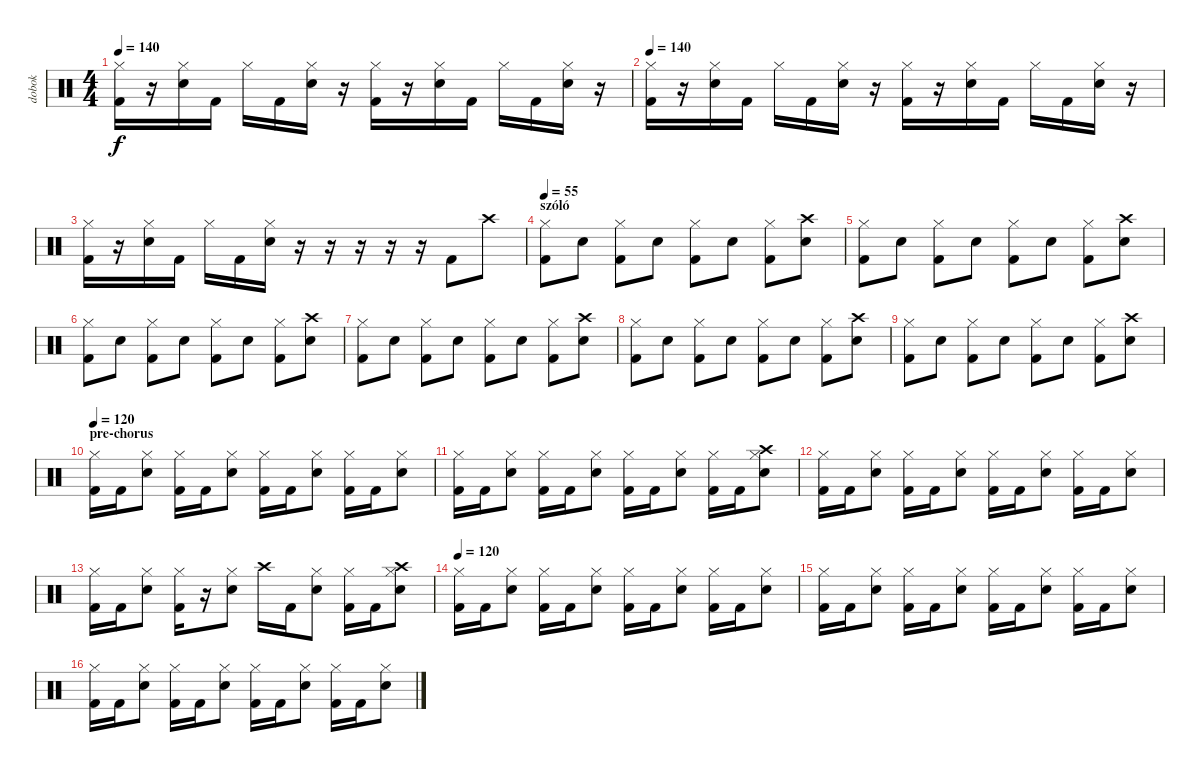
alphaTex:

\track ("dobok" "dobok") {instrument percussion}
\staff {score}
\articulation defaults
\ts (4 4)
\tempo 140
\clef neutral
\ks c
("Hi-Hat (closed)" "Kick (hit) 2").16{dy f} r.16 ("Hi-Hat (closed)" "Snare (hit) 2").16 "Kick (hit) 2".16 "Hi-Hat (closed)".16 "Kick (hit) 2".16 ("Hi-Hat (closed)" "Snare (hit) 2").16 r.16 ("Hi-Hat (closed)" "Kick (hit) 2").16 r.16 ("Hi-Hat (closed)" "Snare (hit) 2").16 "Kick (hit) 2".16 "Hi-Hat (closed)".16 "Kick (hit) 2".16 ("Hi-Hat (closed)" "Snare (hit) 2").16 r.16 |
\tempo 140
("Hi-Hat (closed)" "Kick (hit) 2").16 r.16 ("Hi-Hat (closed)" "Snare (hit) 2").16 "Kick (hit) 2".16 "Hi-Hat (closed)".16 "Kick (hit) 2".16 ("Hi-Hat (closed)" "Snare (hit) 2").16 r.16 ("Hi-Hat (closed)" "Kick (hit) 2").16 r.16 ("Hi-Hat (closed)" "Snare (hit) 2").16 "Kick (hit) 2".16 "Hi-Hat (closed)".16 "Kick (hit) 2".16 ("Hi-Hat (closed)" "Snare (hit) 2").16 r.16 |
("Hi-Hat (closed)" "Kick (hit) 2").16 r.16 ("Hi-Hat (closed)" "Snare (hit) 2").16 "Kick (hit) 2".16 "Hi-Hat (closed)".16 "Kick (hit) 2".16 ("Hi-Hat (closed)" "Snare (hit) 2").16 r.16 r.16 r.16 r.16 r.16 "Kick (hit) 2".8 "Crash high (hit)".8 |
\section ("" "szóló")
\tempo 55
("Hi-Hat (closed)" "Kick (hit) 2").8 "Snare (hit) 2".8 ("Hi-Hat (closed)" "Kick (hit) 2").8 "Snare (hit) 2".8 ("Hi-Hat (closed)" "Kick (hit) 2").8 "Snare (hit) 2".8 ("Hi-Hat (closed)" "Kick (hit) 2").8 ("Snare (hit) 2" "Crash high (hit)").8 |
("Hi-Hat (closed)" "Kick (hit) 2").8 "Snare (hit) 2".8 ("Hi-Hat (closed)" "Kick (hit) 2").8 "Snare (hit) 2".8 ("Hi-Hat (closed)" "Kick (hit) 2").8 "Snare (hit) 2".8 ("Hi-Hat (closed)" "Kick (hit) 2").8 ("Snare (hit) 2" "Crash high (hit)").8 |
("Hi-Hat (closed)" "Kick (hit) 2").8 "Snare (hit) 2".8 ("Hi-Hat (closed)" "Kick (hit) 2").8 "Snare (hit) 2".8 ("Hi-Hat (closed)" "Kick (hit) 2").8 "Snare (hit) 2".8 ("Hi-Hat (closed)" "Kick (hit) 2").8 ("Snare (hit) 2" "Crash high (hit)").8 |
("Hi-Hat (closed)" "Kick (hit) 2").8 "Snare (hit) 2".8 ("Hi-Hat (closed)" "Kick (hit) 2").8 "Snare (hit) 2".8 ("Hi-Hat (closed)" "Kick (hit) 2").8 "Snare (hit) 2".8 ("Hi-Hat (closed)" "Kick (hit) 2").8 ("Snare (hit) 2" "Crash high (hit)").8 |
("Hi-Hat (closed)" "Kick (hit) 2").8 "Snare (hit) 2".8 ("Hi-Hat (closed)" "Kick (hit) 2").8 "Snare (hit) 2".8 ("Hi-Hat (closed)" "Kick (hit) 2").8 "Snare (hit) 2".8 ("Hi-Hat (closed)" "Kick (hit) 2").8 ("Snare (hit) 2" "Crash high (hit)").8 |
("Hi-Hat (closed)" "Kick (hit) 2").8 "Snare (hit) 2".8 ("Hi-Hat (closed)" "Kick (hit) 2").8 "Snare (hit) 2".8 ("Hi-Hat (closed)" "Kick (hit) 2").8 "Snare (hit) 2".8 ("Hi-Hat (closed)" "Kick (hit) 2").8 ("Snare (hit) 2" "Crash high (hit)").8 |
\section ("" "pre-chorus")
\tempo 120
("Hi-Hat (closed)" "Kick (hit) 2").16 "Kick (hit) 2".16 ("Hi-Hat (closed)" "Snare (hit) 2").8 ("Hi-Hat (closed)" "Kick (hit) 2").16 "Kick (hit) 2".16 ("Hi-Hat (closed)" "Snare (hit) 2").8 ("Hi-Hat (closed)" "Kick (hit) 2").16 "Kick (hit) 2".16 ("Hi-Hat (closed)" "Snare (hit) 2").8 ("Hi-Hat (closed)" "Kick (hit) 2").16 "Kick (hit) 2".16 ("Hi-Hat (closed)" "Snare (hit) 2").8 |
("Hi-Hat (closed)" "Kick (hit) 2").16 "Kick (hit) 2".16 ("Hi-Hat (closed)" "Snare (hit) 2").8 ("Hi-Hat (closed)" "Kick (hit) 2").16 "Kick (hit) 2".16 ("Hi-Hat (closed)" "Snare (hit) 2").8 ("Hi-Hat (closed)" "Kick (hit) 2").16 "Kick (hit) 2".16 ("Hi-Hat (closed)" "Snare (hit) 2").8 ("Hi-Hat (closed)" "Kick (hit) 2").16 "Kick (hit) 2".16 ("Hi-Hat (closed)" "Snare (hit) 2" "Crash high (hit)").8 |
("Hi-Hat (closed)" "Kick (hit) 2").16 "Kick (hit) 2".16 ("Hi-Hat (closed)" "Snare (hit) 2").8 ("Hi-Hat (closed)" "Kick (hit) 2").16 "Kick (hit) 2".16 ("Hi-Hat (closed)" "Snare (hit) 2").8 ("Hi-Hat (closed)" "Kick (hit) 2").16 "Kick (hit) 2".16 ("Hi-Hat (closed)" "Snare (hit) 2").8 ("Hi-Hat (closed)" "Kick (hit) 2").16 "Kick (hit) 2".16 ("Hi-Hat (closed)" "Snare (hit) 2").8 |
("Hi-Hat (closed)" "Kick (hit) 2").16 "Kick (hit) 2".16 ("Hi-Hat (closed)" "Snare (hit) 2").8 ("Hi-Hat (closed)" "Kick (hit) 2").16 r.16 ("Hi-Hat (closed)" "Snare (hit) 2").8 "Crash high (hit)".16 "Kick (hit) 2".16 ("Hi-Hat (closed)" "Snare (hit) 2").8 ("Hi-Hat (closed)" "Kick (hit) 2").16 "Kick (hit) 2".16 ("Hi-Hat (closed)" "Snare (hit) 2" "Crash high (hit)").8 |
\tempo 120
("Hi-Hat (closed)" "Kick (hit) 2").16 "Kick (hit) 2".16 ("Hi-Hat (closed)" "Snare (hit) 2").8 ("Hi-Hat (closed)" "Kick (hit) 2").16 "Kick (hit) 2".16 ("Hi-Hat (closed)" "Snare (hit) 2").8 ("Hi-Hat (closed)" "Kick (hit) 2").16 "Kick (hit) 2".16 ("Hi-Hat (closed)" "Snare (hit) 2").8 ("Hi-Hat (closed)" "Kick (hit) 2").16 "Kick (hit) 2".16 ("Hi-Hat (closed)" "Snare (hit) 2").8 |
("Hi-Hat (closed)" "Kick (hit) 2").16 "Kick (hit) 2".16 ("Hi-Hat (closed)" "Snare (hit) 2").8 ("Hi-Hat (closed)" "Kick (hit) 2").16 "Kick (hit) 2".16 ("Hi-Hat (closed)" "Snare (hit) 2").8 ("Hi-Hat (closed)" "Kick (hit) 2").16 "Kick (hit) 2".16 ("Hi-Hat (closed)" "Snare (hit) 2").8 ("Hi-Hat (closed)" "Kick (hit) 2").16 "Kick (hit) 2".16 ("Hi-Hat (closed)" "Snare (hit) 2").8 |
("Hi-Hat (closed)" "Kick (hit) 2").16 "Kick (hit) 2".16 ("Hi-Hat (closed)" "Snare (hit) 2").8 ("Hi-Hat (closed)" "Kick (hit) 2").16 "Kick (hit) 2".16 ("Hi-Hat (closed)" "Snare (hit) 2").8 ("Hi-Hat (closed)" "Kick (hit) 2").16 "Kick (hit) 2".16 ("Hi-Hat (closed)" "Snare (hit) 2").8 ("Hi-Hat (closed)" "Kick (hit) 2").16 "Kick (hit) 2".16 ("Hi-Hat (closed)" "Snare (hit) 2").8
